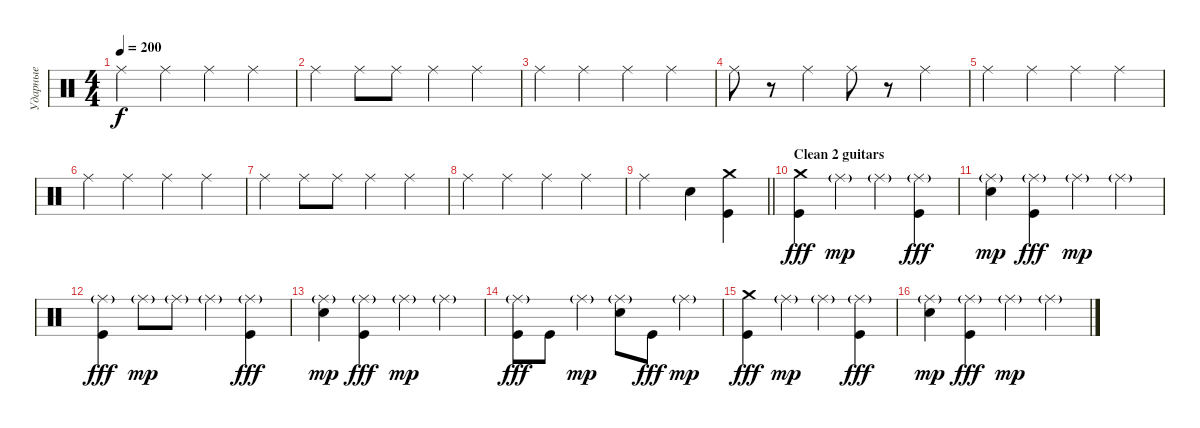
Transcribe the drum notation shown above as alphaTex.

\track ("Ударные" "Ударные") {instrument percussion}
\staff {score}
\articulation defaults
\ts (4 4)
\tempo 200
\clef neutral
\ks c "Ride (middle)".4{dy f} "Ride (middle)".4 "Ride (middle)".4 "Ride (middle)".4
|
"Ride (middle)".4 "Ride (middle)".8 "Ride (middle)".8 "Ride (middle)".4 "Ride (middle)".4 |
"Ride (middle)".4 "Ride (middle)".4 "Ride (middle)".4 "Ride (middle)".4 |
"Ride (middle)".8 r.8 "Ride (middle)".4 "Ride (middle)".8 r.8 "Ride (middle)".4 |
"Ride (middle)".4 "Ride (middle)".4 "Ride (middle)".4 "Ride (middle)".4 |
"Ride (middle)".4 "Ride (middle)".4 "Ride (middle)".4 "Ride (middle)".4 |
"Ride (middle)".4 "Ride (middle)".8 "Ride (middle)".8 "Ride (middle)".4 "Ride (middle)".4 |
"Ride (middle)".4 "Ride (middle)".4 "Ride (middle)".4 "Ride (middle)".4 |
\barLineRight lightlight "Ride (middle)".2 "Electric Snare (hit)".4
("Crash medium (hit)" "Kick (hit)").4 |
\section ("" "Clean 2 guitars")
("Crash medium (hit)" "Kick (hit)").4{dy fff volume 13} "Ride (middle)"{g}.4{dy mp} "Ride (middle)"{g}.4 ("Ride (middle)"{g} "Kick (hit)").4{dy fff} |
("Ride (middle)"{g} "Electric Snare (hit)").4{dy mp} ("Ride (middle)"{g} "Kick (hit)").4{dy fff} "Ride (middle)"{g}.4{dy mp} "Ride (middle)"{g}.4 |
("Ride (middle)"{g} "Kick (hit)").4{dy fff} "Ride (middle)"{g}.8{dy mp} "Ride (middle)"{g}.8 "Ride (middle)"{g}.4 ("Ride (middle)"{g} "Kick (hit)").4{dy fff} |
("Ride (middle)"{g} "Electric Snare (hit)").4{dy mp} ("Ride (middle)"{g} "Kick (hit)").4{dy fff} "Ride (middle)"{g}.4{dy mp} "Ride (middle)"{g}.4 |
("Ride (middle)"{g} "Kick (hit)").8{dy fff} "Kick (hit)".8 "Ride (middle)"{g}.4{dy mp} ("Ride (middle)"{g} "Electric Snare (hit)").8 "Kick (hit)".8{dy fff} "Ride (middle)"{g}.4{dy mp} |
("Crash medium (hit)" "Kick (hit)").4{dy fff} "Ride (middle)"{g}.4{dy mp} "Ride (middle)"{g}.4 ("Ride (middle)"{g} "Kick (hit)").4{dy fff} |
("Ride (middle)"{g} "Electric Snare (hit)").4{dy mp} ("Ride (middle)"{g} "Kick (hit)").4{dy fff} "Ride (middle)"{g}.4{dy mp} "Ride (middle)"{g}.4
